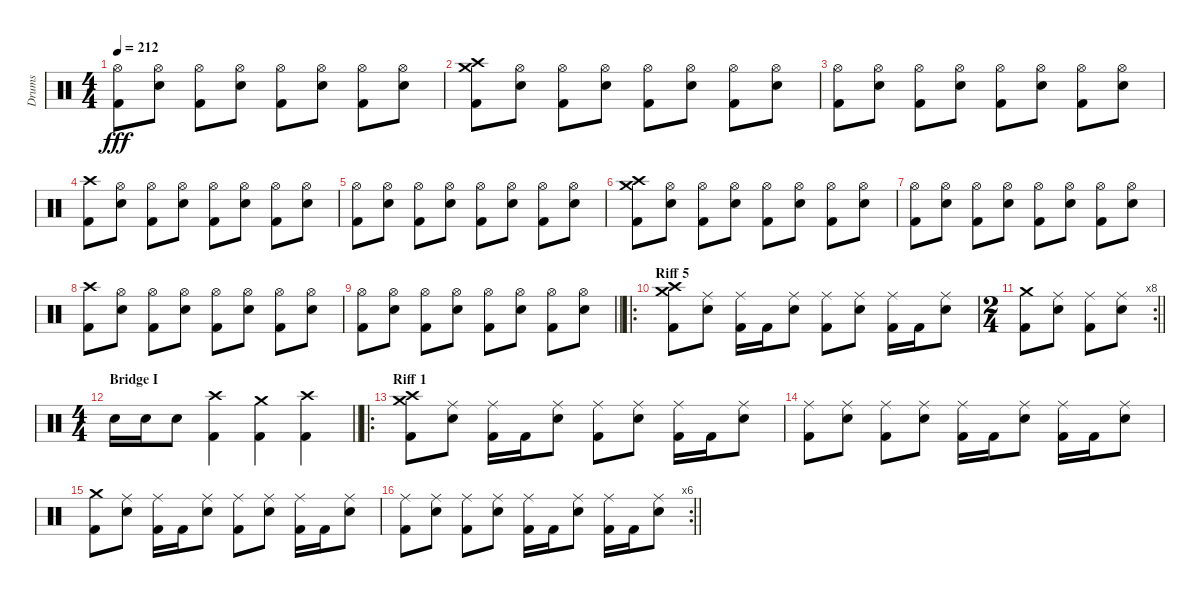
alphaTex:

\track ("Drums" "Drums") {instrument percussion}
\staff {score}
\articulation defaults
\ts (4 4)
\tempo 212
\clef neutral
\ks c
("Hi-Hat (open)" "Kick (hit) 2").8{dy fff} ("Hi-Hat (open)" "Snare (hit) 2").8 ("Hi-Hat (open)" "Kick (hit) 2").8 ("Hi-Hat (open)" "Snare (hit) 2").8 ("Hi-Hat (open)" "Kick (hit) 2").8 ("Hi-Hat (open)" "Snare (hit) 2").8 ("Hi-Hat (open)" "Kick (hit) 2").8 ("Hi-Hat (open)" "Snare (hit) 2").8 |
("Crash high (hit)" "Crash medium (hit)" "Kick (hit) 2").8 ("Hi-Hat (open)" "Snare (hit) 2").8 ("Hi-Hat (open)" "Kick (hit) 2").8 ("Hi-Hat (open)" "Snare (hit) 2").8 ("Hi-Hat (open)" "Kick (hit) 2").8 ("Hi-Hat (open)" "Snare (hit) 2").8 ("Hi-Hat (open)" "Kick (hit) 2").8 ("Hi-Hat (open)" "Snare (hit) 2").8 |
("Hi-Hat (open)" "Kick (hit) 2").8 ("Hi-Hat (open)" "Snare (hit) 2").8 ("Hi-Hat (open)" "Kick (hit) 2").8 ("Hi-Hat (open)" "Snare (hit) 2").8 ("Hi-Hat (open)" "Kick (hit) 2").8 ("Hi-Hat (open)" "Snare (hit) 2").8 ("Hi-Hat (open)" "Kick (hit) 2").8 ("Hi-Hat (open)" "Snare (hit) 2").8 |
("Crash high (hit)" "Kick (hit) 2").8 ("Hi-Hat (open)" "Snare (hit) 2").8 ("Hi-Hat (open)" "Kick (hit) 2").8 ("Hi-Hat (open)" "Snare (hit) 2").8 ("Hi-Hat (open)" "Kick (hit) 2").8 ("Hi-Hat (open)" "Snare (hit) 2").8 ("Hi-Hat (open)" "Kick (hit) 2").8 ("Hi-Hat (open)" "Snare (hit) 2").8 |
("Hi-Hat (open)" "Kick (hit) 2").8 ("Hi-Hat (open)" "Snare (hit) 2").8 ("Hi-Hat (open)" "Kick (hit) 2").8 ("Hi-Hat (open)" "Snare (hit) 2").8 ("Hi-Hat (open)" "Kick (hit) 2").8 ("Hi-Hat (open)" "Snare (hit) 2").8 ("Hi-Hat (open)" "Kick (hit) 2").8 ("Hi-Hat (open)" "Snare (hit) 2").8 |
("Crash high (hit)" "Crash medium (hit)" "Kick (hit) 2").8 ("Hi-Hat (open)" "Snare (hit) 2").8 ("Hi-Hat (open)" "Kick (hit) 2").8 ("Hi-Hat (open)" "Snare (hit) 2").8 ("Hi-Hat (open)" "Kick (hit) 2").8 ("Hi-Hat (open)" "Snare (hit) 2").8 ("Hi-Hat (open)" "Kick (hit) 2").8 ("Hi-Hat (open)" "Snare (hit) 2").8 |
("Hi-Hat (open)" "Kick (hit) 2").8 ("Hi-Hat (open)" "Snare (hit) 2").8 ("Hi-Hat (open)" "Kick (hit) 2").8 ("Hi-Hat (open)" "Snare (hit) 2").8 ("Hi-Hat (open)" "Kick (hit) 2").8 ("Hi-Hat (open)" "Snare (hit) 2").8 ("Hi-Hat (open)" "Kick (hit) 2").8 ("Hi-Hat (open)" "Snare (hit) 2").8 |
("Crash high (hit)" "Kick (hit) 2").8 ("Hi-Hat (open)" "Snare (hit) 2").8 ("Hi-Hat (open)" "Kick (hit) 2").8 ("Hi-Hat (open)" "Snare (hit) 2").8 ("Hi-Hat (open)" "Kick (hit) 2").8 ("Hi-Hat (open)" "Snare (hit) 2").8 ("Hi-Hat (open)" "Kick (hit) 2").8 ("Hi-Hat (open)" "Snare (hit) 2").8 |
\barLineRight lightlight
("Hi-Hat (open)" "Kick (hit) 2").8 ("Hi-Hat (open)" "Snare (hit) 2").8 ("Hi-Hat (open)" "Kick (hit) 2").8 ("Hi-Hat (open)" "Snare (hit) 2").8 ("Hi-Hat (open)" "Kick (hit) 2").8 ("Hi-Hat (open)" "Snare (hit) 2").8 ("Hi-Hat (open)" "Kick (hit) 2").8 ("Hi-Hat (open)" "Snare (hit) 2").8 |
\ro
\section ("" "Riff 5")
("Crash high (hit)" "Crash medium (hit)" "Kick (hit) 2").8 ("Ride (middle)" "Electric Snare (hit)").8 ("Ride (middle)" "Kick (hit) 2").16 "Kick (hit) 2".16 ("Ride (middle)" "Electric Snare (hit)").8 ("Ride (middle)" "Kick (hit) 2").8 ("Ride (middle)" "Electric Snare (hit)").8 ("Ride (middle)" "Kick (hit) 2").16 "Kick (hit) 2".16 ("Ride (middle)" "Electric Snare (hit)").8 |
\rc 8
\ts (2 4)
\barLineRight lightlight
("Crash medium (hit)" "Kick (hit) 2").8 ("Ride (middle)" "Electric Snare (hit)").8 ("Ride (middle)" "Kick (hit) 2").8 ("Ride (middle)" "Electric Snare (hit)").8 |
\ts (4 4)
\section ("" "Bridge I")
\barLineRight lightlight "Electric Snare (hit)".16 "Electric Snare (hit)".16 "Electric Snare (hit)".8
("Crash high (hit)" "Kick (hit) 2").4 ("Crash medium (hit)" "Kick (hit) 2").4 ("Crash high (hit)" "Kick (hit) 2").4 |
\ro
\section ("" "Riff 1")
("Crash high (hit)" "Crash medium (hit)" "Kick (hit) 2").8 ("Ride (middle)" "Electric Snare (hit)").8 ("Ride (middle)" "Kick (hit) 2").16 "Kick (hit) 2".16 ("Ride (middle)" "Electric Snare (hit)").8 ("Ride (middle)" "Kick (hit) 2").8 ("Ride (middle)" "Electric Snare (hit)").8 ("Ride (middle)" "Kick (hit) 2").16 "Kick (hit) 2".16 ("Ride (middle)" "Electric Snare (hit)").8 |
("Ride (middle)" "Kick (hit) 2").8 ("Ride (middle)" "Electric Snare (hit)").8 ("Ride (middle)" "Kick (hit) 2").8 ("Ride (middle)" "Electric Snare (hit)").8 ("Ride (middle)" "Kick (hit) 2").16 "Kick (hit) 2".16 ("Ride (middle)" "Electric Snare (hit)").8 ("Ride (middle)" "Kick (hit) 2").16 "Kick (hit) 2".16 ("Ride (middle)" "Electric Snare (hit)").8 |
("Crash medium (hit)" "Kick (hit) 2").8 ("Ride (middle)" "Electric Snare (hit)").8 ("Ride (middle)" "Kick (hit) 2").16 "Kick (hit) 2".16 ("Ride (middle)" "Electric Snare (hit)").8 ("Ride (middle)" "Kick (hit) 2").8 ("Ride (middle)" "Electric Snare (hit)").8 ("Ride (middle)" "Kick (hit) 2").16 "Kick (hit) 2".16 ("Ride (middle)" "Electric Snare (hit)").8 |
\rc 6
\barLineRight lightlight
("Ride (middle)" "Kick (hit) 2").8 ("Ride (middle)" "Electric Snare (hit)").8 ("Ride (middle)" "Kick (hit) 2").8 ("Ride (middle)" "Electric Snare (hit)").8 ("Ride (middle)" "Kick (hit) 2").16 "Kick (hit) 2".16 ("Ride (middle)" "Electric Snare (hit)").8 ("Ride (middle)" "Kick (hit) 2").16 "Kick (hit) 2".16 ("Ride (middle)" "Electric Snare (hit)").8
